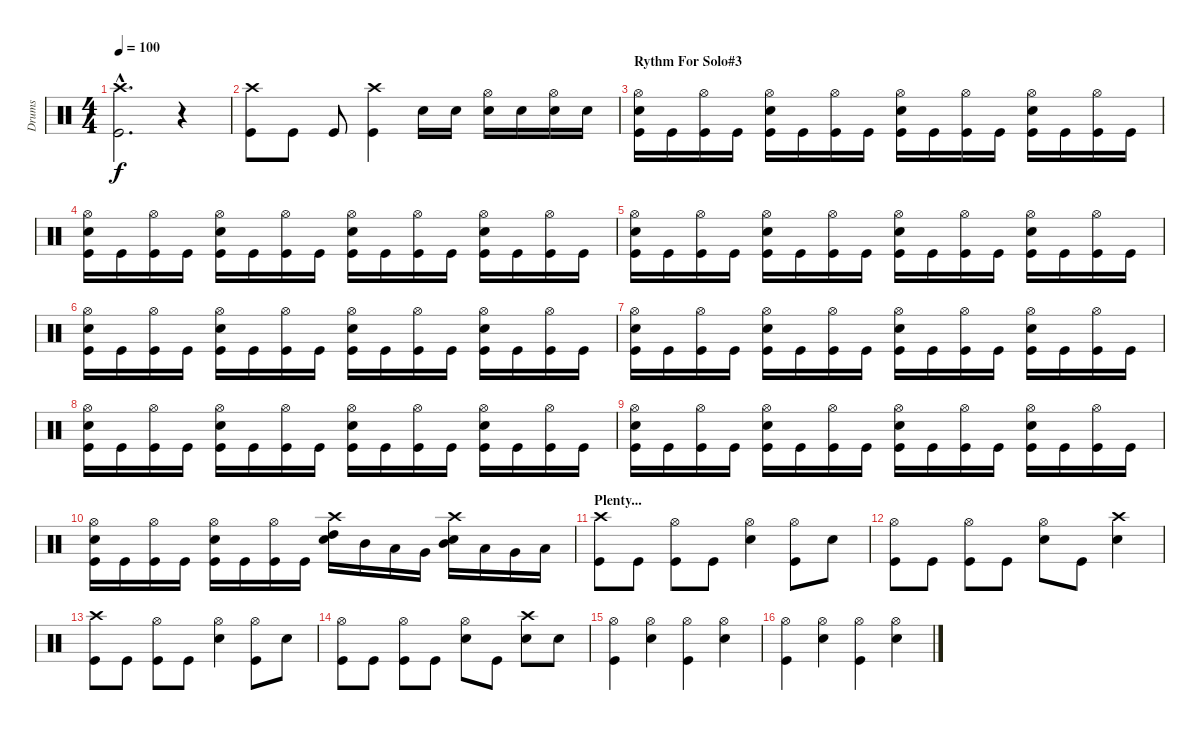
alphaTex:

\track ("Drums" "Drums") {instrument percussion}
\staff {score}
\articulation defaults
\ts (4 4)
\tempo 100
\clef neutral
\ks c
("Crash high (hit)"{hac} "Kick (hit)"{hac}).2{d dy f} r.4 |
("Crash high (hit)" "Kick (hit)").8 "Kick (hit)".8 "Kick (hit)".8 ("Crash high (hit)" "Kick (hit)").4 "Snare (hit) 2".16 "Snare (hit) 2".16 ("Hi-Hat (open)" "Snare (hit) 2").16 "Snare (hit) 2".16 ("Hi-Hat (open)" "Snare (hit) 2").16 "Snare (hit) 2".16 |
\section ("" "Rythm For Solo#3")
("Hi-Hat (open)" "Snare (hit) 2" "Kick (hit)").16 "Kick (hit)".16 ("Hi-Hat (open)" "Kick (hit)").16 "Kick (hit)".16 ("Hi-Hat (open)" "Snare (hit) 2" "Kick (hit)").16 "Kick (hit)".16 ("Hi-Hat (open)" "Kick (hit)").16 "Kick (hit)".16 ("Hi-Hat (open)" "Snare (hit) 2" "Kick (hit)").16 "Kick (hit)".16 ("Hi-Hat (open)" "Kick (hit)").16 "Kick (hit)".16 ("Hi-Hat (open)" "Snare (hit) 2" "Kick (hit)").16 "Kick (hit)".16 ("Hi-Hat (open)" "Kick (hit)").16 "Kick (hit)".16 |
("Hi-Hat (open)" "Snare (hit) 2" "Kick (hit)").16 "Kick (hit)".16 ("Hi-Hat (open)" "Kick (hit)").16 "Kick (hit)".16 ("Hi-Hat (open)" "Snare (hit) 2" "Kick (hit)").16 "Kick (hit)".16 ("Hi-Hat (open)" "Kick (hit)").16 "Kick (hit)".16 ("Hi-Hat (open)" "Snare (hit) 2" "Kick (hit)").16 "Kick (hit)".16 ("Hi-Hat (open)" "Kick (hit)").16 "Kick (hit)".16 ("Hi-Hat (open)" "Snare (hit) 2" "Kick (hit)").16 "Kick (hit)".16 ("Hi-Hat (open)" "Kick (hit)").16 "Kick (hit)".16 |
("Hi-Hat (open)" "Snare (hit) 2" "Kick (hit)").16 "Kick (hit)".16 ("Hi-Hat (open)" "Kick (hit)").16 "Kick (hit)".16 ("Hi-Hat (open)" "Snare (hit) 2" "Kick (hit)").16 "Kick (hit)".16 ("Hi-Hat (open)" "Kick (hit)").16 "Kick (hit)".16 ("Hi-Hat (open)" "Snare (hit) 2" "Kick (hit)").16 "Kick (hit)".16 ("Hi-Hat (open)" "Kick (hit)").16 "Kick (hit)".16 ("Hi-Hat (open)" "Snare (hit) 2" "Kick (hit)").16 "Kick (hit)".16 ("Hi-Hat (open)" "Kick (hit)").16 "Kick (hit)".16 |
("Hi-Hat (open)" "Snare (hit) 2" "Kick (hit)").16 "Kick (hit)".16 ("Hi-Hat (open)" "Kick (hit)").16 "Kick (hit)".16 ("Hi-Hat (open)" "Snare (hit) 2" "Kick (hit)").16 "Kick (hit)".16 ("Hi-Hat (open)" "Kick (hit)").16 "Kick (hit)".16 ("Hi-Hat (open)" "Snare (hit) 2" "Kick (hit)").16 "Kick (hit)".16 ("Hi-Hat (open)" "Kick (hit)").16 "Kick (hit)".16 ("Hi-Hat (open)" "Snare (hit) 2" "Kick (hit)").16 "Kick (hit)".16 ("Hi-Hat (open)" "Kick (hit)").16 "Kick (hit)".16 |
("Hi-Hat (open)" "Snare (hit) 2" "Kick (hit)").16 "Kick (hit)".16 ("Hi-Hat (open)" "Kick (hit)").16 "Kick (hit)".16 ("Hi-Hat (open)" "Snare (hit) 2" "Kick (hit)").16 "Kick (hit)".16 ("Hi-Hat (open)" "Kick (hit)").16 "Kick (hit)".16 ("Hi-Hat (open)" "Snare (hit) 2" "Kick (hit)").16 "Kick (hit)".16 ("Hi-Hat (open)" "Kick (hit)").16 "Kick (hit)".16 ("Hi-Hat (open)" "Snare (hit) 2" "Kick (hit)").16 "Kick (hit)".16 ("Hi-Hat (open)" "Kick (hit)").16 "Kick (hit)".16 |
("Hi-Hat (open)" "Snare (hit) 2" "Kick (hit)").16 "Kick (hit)".16 ("Hi-Hat (open)" "Kick (hit)").16 "Kick (hit)".16 ("Hi-Hat (open)" "Snare (hit) 2" "Kick (hit)").16 "Kick (hit)".16 ("Hi-Hat (open)" "Kick (hit)").16 "Kick (hit)".16 ("Hi-Hat (open)" "Snare (hit) 2" "Kick (hit)").16 "Kick (hit)".16 ("Hi-Hat (open)" "Kick (hit)").16 "Kick (hit)".16 ("Hi-Hat (open)" "Snare (hit) 2" "Kick (hit)").16 "Kick (hit)".16 ("Hi-Hat (open)" "Kick (hit)").16 "Kick (hit)".16 |
("Hi-Hat (open)" "Snare (hit) 2" "Kick (hit)").16 "Kick (hit)".16 ("Hi-Hat (open)" "Kick (hit)").16 "Kick (hit)".16 ("Hi-Hat (open)" "Snare (hit) 2" "Kick (hit)").16 "Kick (hit)".16 ("Hi-Hat (open)" "Kick (hit)").16 "Kick (hit)".16 ("Hi-Hat (open)" "Snare (hit) 2" "Kick (hit)").16 "Kick (hit)".16 ("Hi-Hat (open)" "Kick (hit)").16 "Kick (hit)".16 ("Hi-Hat (open)" "Snare (hit) 2" "Kick (hit)").16 "Kick (hit)".16 ("Hi-Hat (open)" "Kick (hit)").16 "Kick (hit)".16 |
("Hi-Hat (open)" "Snare (hit) 2" "Kick (hit)").16 "Kick (hit)".16 ("Hi-Hat (open)" "Kick (hit)").16 "Kick (hit)".16 ("Hi-Hat (open)" "Snare (hit) 2" "Kick (hit)").16 "Kick (hit)".16 ("Hi-Hat (open)" "Kick (hit)").16 "Kick (hit)".16 ("Crash high (hit)" "Snare (hit) 2" "High Tom (hit)").16 "Mid Tom (hit)".16 "Low Tom (hit)".16 "Very Low Tom (hit)".16 ("Crash high (hit)" "Snare (hit) 2" "Mid Tom (hit)").16 "Low Tom (hit)".16 "Very Low Tom (hit)".16 "Low Floor Tom (hit)".16 |
\section ("" "Plenty...")
("Crash high (hit)" "Kick (hit)").8 "Kick (hit)".8 ("Hi-Hat (open)" "Kick (hit)").8 "Kick (hit)".8 ("Hi-Hat (open)" "Snare (hit) 2").4 ("Hi-Hat (open)" "Kick (hit)").8 "Snare (hit) 2".8 |
("Hi-Hat (open)" "Kick (hit)").8 "Kick (hit)".8 ("Hi-Hat (open)" "Kick (hit)").8 "Kick (hit)".8 ("Hi-Hat (open)" "Snare (hit) 2").8 "Kick (hit)".8 ("Crash high (hit)" "Snare (hit) 2").4 |
("Crash high (hit)" "Kick (hit)").8 "Kick (hit)".8 ("Hi-Hat (open)" "Kick (hit)").8 "Kick (hit)".8 ("Hi-Hat (open)" "Snare (hit) 2").4 ("Hi-Hat (open)" "Kick (hit)").8 "Snare (hit) 2".8 |
("Hi-Hat (open)" "Kick (hit)").8 "Kick (hit)".8 ("Hi-Hat (open)" "Kick (hit)").8 "Kick (hit)".8 ("Hi-Hat (open)" "Snare (hit) 2").8 "Kick (hit)".8 ("Crash high (hit)" "Snare (hit) 2").8 "Snare (hit) 2".8 |
("Hi-Hat (open)" "Kick (hit)").4 ("Hi-Hat (open)" "Snare (hit) 2").4 ("Hi-Hat (open)" "Kick (hit)").4 ("Hi-Hat (open)" "Snare (hit) 2").4 |
("Hi-Hat (open)" "Kick (hit)").4 ("Hi-Hat (open)" "Snare (hit) 2").4 ("Hi-Hat (open)" "Kick (hit)").4 ("Hi-Hat (open)" "Snare (hit) 2").4
